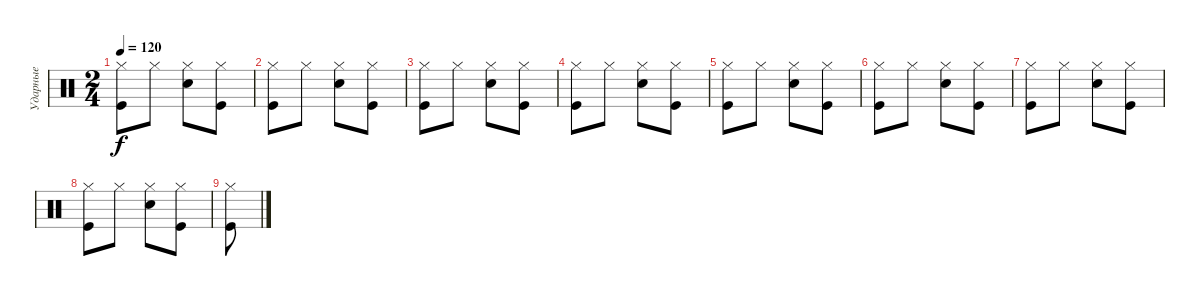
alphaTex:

\track ("Ударные" "Ударные") {instrument percussion}
\staff {score}
\articulation defaults
\ts (2 4)
\tempo 120
\clef neutral
\ks c
("Kick (hit)" "Hi-Hat (closed)").8{dy f} "Hi-Hat (closed)".8 ("Snare (hit) 2" "Hi-Hat (closed)").8 ("Kick (hit)" "Hi-Hat (closed)").8 |
("Kick (hit)" "Hi-Hat (closed)").8 "Hi-Hat (closed)".8 ("Snare (hit) 2" "Hi-Hat (closed)").8 ("Kick (hit)" "Hi-Hat (closed)").8 |
("Kick (hit)" "Hi-Hat (closed)").8 "Hi-Hat (closed)".8 ("Snare (hit) 2" "Hi-Hat (closed)").8 ("Kick (hit)" "Hi-Hat (closed)").8 |
("Kick (hit)" "Hi-Hat (closed)").8 "Hi-Hat (closed)".8 ("Snare (hit) 2" "Hi-Hat (closed)").8 ("Kick (hit)" "Hi-Hat (closed)").8 |
("Kick (hit)" "Hi-Hat (closed)").8 "Hi-Hat (closed)".8 ("Snare (hit) 2" "Hi-Hat (closed)").8 ("Kick (hit)" "Hi-Hat (closed)").8 |
("Kick (hit)" "Hi-Hat (closed)").8 "Hi-Hat (closed)".8 ("Snare (hit) 2" "Hi-Hat (closed)").8 ("Kick (hit)" "Hi-Hat (closed)").8 |
("Kick (hit)" "Hi-Hat (closed)").8 "Hi-Hat (closed)".8 ("Snare (hit) 2" "Hi-Hat (closed)").8 ("Kick (hit)" "Hi-Hat (closed)").8 |
("Kick (hit)" "Hi-Hat (closed)").8 "Hi-Hat (closed)".8 ("Snare (hit) 2" "Hi-Hat (closed)").8 ("Kick (hit)" "Hi-Hat (closed)").8 |
("Kick (hit)" "Hi-Hat (closed)").8
